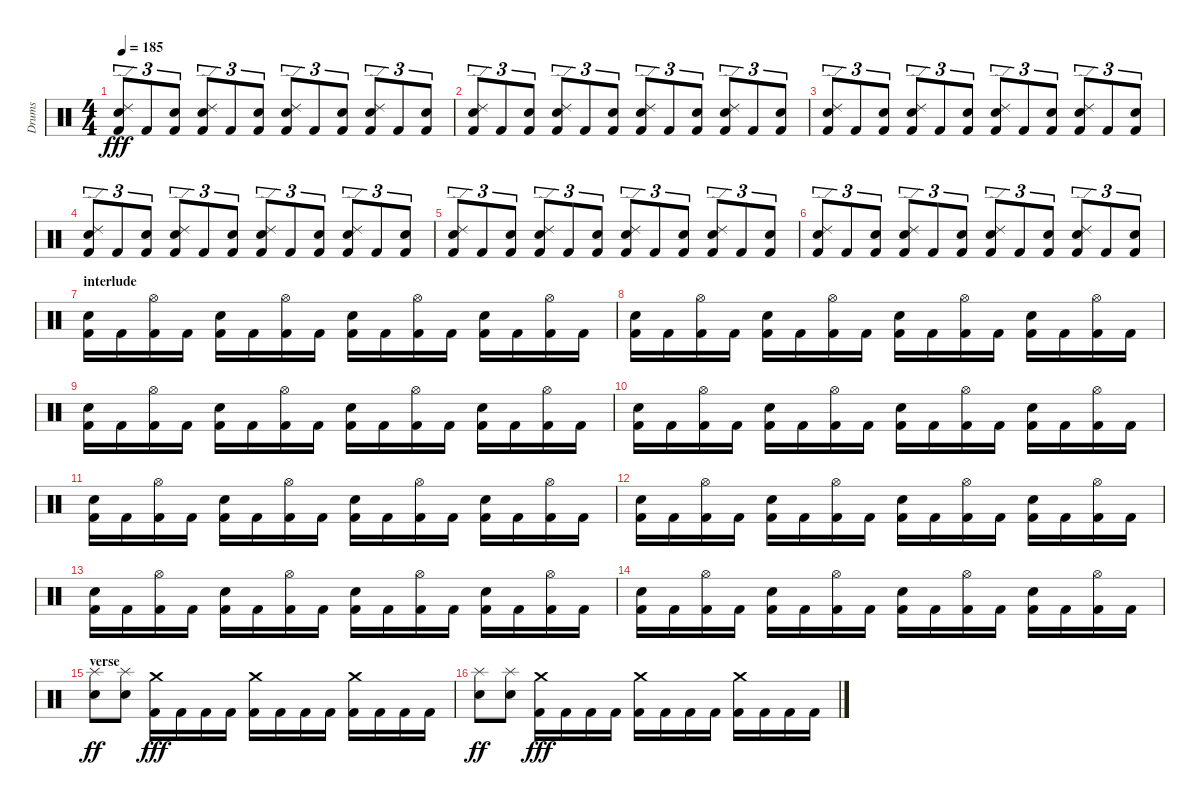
\track ("Drums" "Drums") {instrument percussion}
\staff {score}
\articulation defaults
\ts (4 4)
\tempo 185
\clef neutral
\ks c
("Ride (edge) 2" "Electric Snare (hit)" "Kick (hit) 2").8{tu (3 2) dy fff} "Kick (hit) 2".8{tu (3 2)} ("Snare (hit) 2" "Kick (hit) 2").8{tu (3 2)} ("Ride (edge) 2" "Electric Snare (hit)" "Kick (hit) 2").8{tu (3 2)} "Kick (hit) 2".8{tu (3 2)} ("Snare (hit) 2" "Kick (hit) 2").8{tu (3 2)} ("Ride (edge) 2" "Electric Snare (hit)" "Kick (hit) 2").8{tu (3 2)} "Kick (hit) 2".8{tu (3 2)} ("Snare (hit) 2" "Kick (hit) 2").8{tu (3 2)} ("Ride (edge) 2" "Electric Snare (hit)" "Kick (hit) 2").8{tu (3 2)} "Kick (hit) 2".8{tu (3 2)} ("Snare (hit) 2" "Kick (hit) 2").8{tu (3 2)} |
("Ride (edge) 2" "Electric Snare (hit)" "Kick (hit) 2").8{tu (3 2)} "Kick (hit) 2".8{tu (3 2)} ("Snare (hit) 2" "Kick (hit) 2").8{tu (3 2)} ("Ride (edge) 2" "Electric Snare (hit)" "Kick (hit) 2").8{tu (3 2)} "Kick (hit) 2".8{tu (3 2)} ("Snare (hit) 2" "Kick (hit) 2").8{tu (3 2)} ("Ride (edge) 2" "Electric Snare (hit)" "Kick (hit) 2").8{tu (3 2)} "Kick (hit) 2".8{tu (3 2)} ("Snare (hit) 2" "Kick (hit) 2").8{tu (3 2)} ("Ride (edge) 2" "Electric Snare (hit)" "Kick (hit) 2").8{tu (3 2)} "Kick (hit) 2".8{tu (3 2)} ("Snare (hit) 2" "Kick (hit) 2").8{tu (3 2)} |
("Ride (edge) 2" "Electric Snare (hit)" "Kick (hit) 2").8{tu (3 2)} "Kick (hit) 2".8{tu (3 2)} ("Snare (hit) 2" "Kick (hit) 2").8{tu (3 2)} ("Ride (edge) 2" "Electric Snare (hit)" "Kick (hit) 2").8{tu (3 2)} "Kick (hit) 2".8{tu (3 2)} ("Snare (hit) 2" "Kick (hit) 2").8{tu (3 2)} ("Ride (edge) 2" "Electric Snare (hit)" "Kick (hit) 2").8{tu (3 2)} "Kick (hit) 2".8{tu (3 2)} ("Snare (hit) 2" "Kick (hit) 2").8{tu (3 2)} ("Ride (edge) 2" "Electric Snare (hit)" "Kick (hit) 2").8{tu (3 2)} "Kick (hit) 2".8{tu (3 2)} ("Snare (hit) 2" "Kick (hit) 2").8{tu (3 2)} |
("Ride (edge) 2" "Electric Snare (hit)" "Kick (hit) 2").8{tu (3 2)} "Kick (hit) 2".8{tu (3 2)} ("Snare (hit) 2" "Kick (hit) 2").8{tu (3 2)} ("Ride (edge) 2" "Electric Snare (hit)" "Kick (hit) 2").8{tu (3 2)} "Kick (hit) 2".8{tu (3 2)} ("Snare (hit) 2" "Kick (hit) 2").8{tu (3 2)} ("Ride (edge) 2" "Electric Snare (hit)" "Kick (hit) 2").8{tu (3 2)} "Kick (hit) 2".8{tu (3 2)} ("Snare (hit) 2" "Kick (hit) 2").8{tu (3 2)} ("Ride (edge) 2" "Electric Snare (hit)" "Kick (hit) 2").8{tu (3 2)} "Kick (hit) 2".8{tu (3 2)} ("Snare (hit) 2" "Kick (hit) 2").8{tu (3 2)} |
("Ride (edge) 2" "Electric Snare (hit)" "Kick (hit) 2").8{tu (3 2)} "Kick (hit) 2".8{tu (3 2)} ("Snare (hit) 2" "Kick (hit) 2").8{tu (3 2)} ("Ride (edge) 2" "Electric Snare (hit)" "Kick (hit) 2").8{tu (3 2)} "Kick (hit) 2".8{tu (3 2)} ("Snare (hit) 2" "Kick (hit) 2").8{tu (3 2)} ("Ride (edge) 2" "Electric Snare (hit)" "Kick (hit) 2").8{tu (3 2)} "Kick (hit) 2".8{tu (3 2)} ("Snare (hit) 2" "Kick (hit) 2").8{tu (3 2)} ("Ride (edge) 2" "Electric Snare (hit)" "Kick (hit) 2").8{tu (3 2)} "Kick (hit) 2".8{tu (3 2)} ("Snare (hit) 2" "Kick (hit) 2").8{tu (3 2)} |
("Ride (edge) 2" "Electric Snare (hit)" "Kick (hit) 2").8{tu (3 2)} "Kick (hit) 2".8{tu (3 2)} ("Snare (hit) 2" "Kick (hit) 2").8{tu (3 2)} ("Ride (edge) 2" "Electric Snare (hit)" "Kick (hit) 2").8{tu (3 2)} "Kick (hit) 2".8{tu (3 2)} ("Snare (hit) 2" "Kick (hit) 2").8{tu (3 2)} ("Ride (edge) 2" "Electric Snare (hit)" "Kick (hit) 2").8{tu (3 2)} "Kick (hit) 2".8{tu (3 2)} ("Snare (hit) 2" "Kick (hit) 2").8{tu (3 2)} ("Ride (edge) 2" "Electric Snare (hit)" "Kick (hit) 2").8{tu (3 2)} "Kick (hit) 2".8{tu (3 2)} ("Snare (hit) 2" "Kick (hit) 2").8{tu (3 2)} |
\section ("" "interlude")
("Electric Snare (hit)" "Kick (hit) 2").16 "Kick (hit) 2".16 ("Hi-Hat (open)" "Kick (hit) 2").16 "Kick (hit) 2".16 ("Electric Snare (hit)" "Kick (hit) 2").16 "Kick (hit) 2".16 ("Hi-Hat (open)" "Kick (hit) 2").16 "Kick (hit) 2".16 ("Electric Snare (hit)" "Kick (hit) 2").16 "Kick (hit) 2".16 ("Hi-Hat (open)" "Kick (hit) 2").16 "Kick (hit) 2".16 ("Electric Snare (hit)" "Kick (hit) 2").16 "Kick (hit) 2".16 ("Hi-Hat (open)" "Kick (hit) 2").16 "Kick (hit) 2".16 |
("Electric Snare (hit)" "Kick (hit) 2").16 "Kick (hit) 2".16 ("Hi-Hat (open)" "Kick (hit) 2").16 "Kick (hit) 2".16 ("Electric Snare (hit)" "Kick (hit) 2").16 "Kick (hit) 2".16 ("Hi-Hat (open)" "Kick (hit) 2").16 "Kick (hit) 2".16 ("Electric Snare (hit)" "Kick (hit) 2").16 "Kick (hit) 2".16 ("Hi-Hat (open)" "Kick (hit) 2").16 "Kick (hit) 2".16 ("Electric Snare (hit)" "Kick (hit) 2").16 "Kick (hit) 2".16 ("Hi-Hat (open)" "Kick (hit) 2").16 "Kick (hit) 2".16 |
("Electric Snare (hit)" "Kick (hit) 2").16 "Kick (hit) 2".16 ("Hi-Hat (open)" "Kick (hit) 2").16 "Kick (hit) 2".16 ("Electric Snare (hit)" "Kick (hit) 2").16 "Kick (hit) 2".16 ("Hi-Hat (open)" "Kick (hit) 2").16 "Kick (hit) 2".16 ("Electric Snare (hit)" "Kick (hit) 2").16 "Kick (hit) 2".16 ("Hi-Hat (open)" "Kick (hit) 2").16 "Kick (hit) 2".16 ("Electric Snare (hit)" "Kick (hit) 2").16 "Kick (hit) 2".16 ("Hi-Hat (open)" "Kick (hit) 2").16 "Kick (hit) 2".16 |
("Electric Snare (hit)" "Kick (hit) 2").16 "Kick (hit) 2".16 ("Hi-Hat (open)" "Kick (hit) 2").16 "Kick (hit) 2".16 ("Electric Snare (hit)" "Kick (hit) 2").16 "Kick (hit) 2".16 ("Hi-Hat (open)" "Kick (hit) 2").16 "Kick (hit) 2".16 ("Electric Snare (hit)" "Kick (hit) 2").16 "Kick (hit) 2".16 ("Hi-Hat (open)" "Kick (hit) 2").16 "Kick (hit) 2".16 ("Electric Snare (hit)" "Kick (hit) 2").16 "Kick (hit) 2".16 ("Hi-Hat (open)" "Kick (hit) 2").16 "Kick (hit) 2".16 |
("Electric Snare (hit)" "Kick (hit) 2").16 "Kick (hit) 2".16 ("Hi-Hat (open)" "Kick (hit) 2").16 "Kick (hit) 2".16 ("Electric Snare (hit)" "Kick (hit) 2").16 "Kick (hit) 2".16 ("Hi-Hat (open)" "Kick (hit) 2").16 "Kick (hit) 2".16 ("Electric Snare (hit)" "Kick (hit) 2").16 "Kick (hit) 2".16 ("Hi-Hat (open)" "Kick (hit) 2").16 "Kick (hit) 2".16 ("Electric Snare (hit)" "Kick (hit) 2").16 "Kick (hit) 2".16 ("Hi-Hat (open)" "Kick (hit) 2").16 "Kick (hit) 2".16 |
("Electric Snare (hit)" "Kick (hit) 2").16 "Kick (hit) 2".16 ("Hi-Hat (open)" "Kick (hit) 2").16 "Kick (hit) 2".16 ("Electric Snare (hit)" "Kick (hit) 2").16 "Kick (hit) 2".16 ("Hi-Hat (open)" "Kick (hit) 2").16 "Kick (hit) 2".16 ("Electric Snare (hit)" "Kick (hit) 2").16 "Kick (hit) 2".16 ("Hi-Hat (open)" "Kick (hit) 2").16 "Kick (hit) 2".16 ("Electric Snare (hit)" "Kick (hit) 2").16 "Kick (hit) 2".16 ("Hi-Hat (open)" "Kick (hit) 2").16 "Kick (hit) 2".16 |
("Electric Snare (hit)" "Kick (hit) 2").16 "Kick (hit) 2".16 ("Hi-Hat (open)" "Kick (hit) 2").16 "Kick (hit) 2".16 ("Electric Snare (hit)" "Kick (hit) 2").16 "Kick (hit) 2".16 ("Hi-Hat (open)" "Kick (hit) 2").16 "Kick (hit) 2".16 ("Electric Snare (hit)" "Kick (hit) 2").16 "Kick (hit) 2".16 ("Hi-Hat (open)" "Kick (hit) 2").16 "Kick (hit) 2".16 ("Electric Snare (hit)" "Kick (hit) 2").16 "Kick (hit) 2".16 ("Hi-Hat (open)" "Kick (hit) 2").16 "Kick (hit) 2".16 |
("Electric Snare (hit)" "Kick (hit) 2").16 "Kick (hit) 2".16 ("Hi-Hat (open)" "Kick (hit) 2").16 "Kick (hit) 2".16 ("Electric Snare (hit)" "Kick (hit) 2").16 "Kick (hit) 2".16 ("Hi-Hat (open)" "Kick (hit) 2").16 "Kick (hit) 2".16 ("Electric Snare (hit)" "Kick (hit) 2").16 "Kick (hit) 2".16 ("Hi-Hat (open)" "Kick (hit) 2").16 "Kick (hit) 2".16 ("Electric Snare (hit)" "Kick (hit) 2").16 "Kick (hit) 2".16 ("Hi-Hat (open)" "Kick (hit) 2").16 "Kick (hit) 2".16 |
\section ("" "verse")
("Splash (hit)" "Electric Snare (hit)").8{dy ff} ("Splash (hit)" "Electric Snare (hit)").8 ("Kick (hit) 2" "Crash medium (hit)").16{dy fff} "Kick (hit) 2".16 "Kick (hit) 2".16 "Kick (hit) 2".16 ("Kick (hit) 2" "Crash medium (hit)").16 "Kick (hit) 2".16 "Kick (hit) 2".16 "Kick (hit) 2".16 ("Kick (hit) 2" "Crash medium (hit)").16 "Kick (hit) 2".16 "Kick (hit) 2".16 "Kick (hit) 2".16 |
("Splash (hit)" "Electric Snare (hit)").8{dy ff} ("Splash (hit)" "Electric Snare (hit)").8 ("Kick (hit) 2" "Crash medium (hit)").16{dy fff} "Kick (hit) 2".16 "Kick (hit) 2".16 "Kick (hit) 2".16 ("Kick (hit) 2" "Crash medium (hit)").16 "Kick (hit) 2".16 "Kick (hit) 2".16 "Kick (hit) 2".16 ("Kick (hit) 2" "Crash medium (hit)").16 "Kick (hit) 2".16 "Kick (hit) 2".16 "Kick (hit) 2".16
